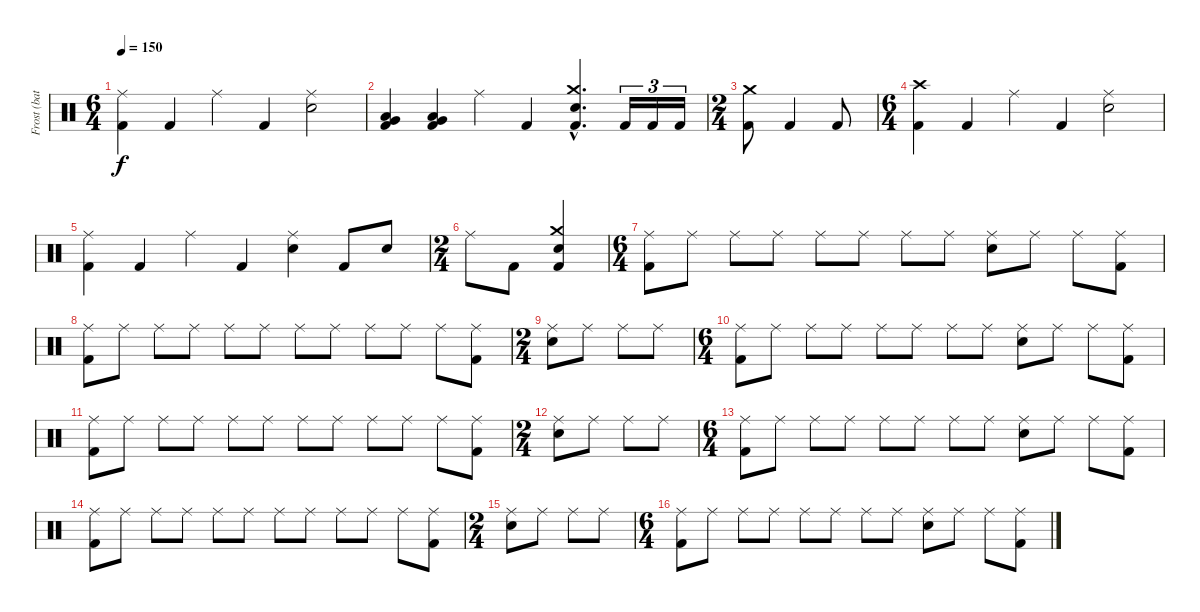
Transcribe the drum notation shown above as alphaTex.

\track ("Frost (battery)" "Frost (bat") {instrument percussion}
\staff {score}
\articulation defaults
\ts (6 4)
\tempo 150
\clef neutral
\ks c
("Ride (middle)" "Kick (hit) 2").4{dy f} "Kick (hit) 2".4 "Ride (middle)".4 "Kick (hit) 2".4 ("Ride (middle)" "Snare (hit) 2").2 |
("Very Low Tom (hit)" "Low Floor Tom (hit)" "Kick (hit) 2").4 ("Very Low Tom (hit)" "Low Floor Tom (hit)" "Kick (hit) 2").4 "Ride (middle)".4 "Kick (hit) 2".4 ("Crash medium (hit)"{hac} "Electric Snare (hit)"{hac} "Kick (hit) 2"{hac}).4{d} "Kick (hit) 2".16{tu (3 2)} "Kick (hit) 2".16{tu (3 2)} "Kick (hit) 2".16{tu (3 2)} |
\ts (2 4)
("Crash medium (hit)" "Kick (hit) 2").8 "Kick (hit) 2".4 "Kick (hit) 2".8 |
\ts (6 4)
("Crash high (hit)" "Kick (hit) 2").4 "Kick (hit) 2".4 "Ride (middle)".4 "Kick (hit) 2".4 ("Ride (middle)" "Snare (hit) 2").2 |
("Ride (middle)" "Kick (hit) 2").4 "Kick (hit) 2".4 "Ride (middle)".4 "Kick (hit) 2".4 ("Ride (middle)" "Snare (hit) 2").4 "Kick (hit) 2".8 "Electric Snare (hit)".8 |
\ts (2 4)
"Ride (middle)".8 "Kick (hit) 2".8 ("Crash medium (hit)" "Electric Snare (hit)" "Kick (hit) 2").4 |
\ts (6 4)
("Ride (middle)" "Kick (hit) 2").8 "Ride (middle)".8 "Ride (middle)".8 "Ride (middle)".8 "Ride (middle)".8 "Ride (middle)".8 "Ride (middle)".8{volume 11} "Ride (middle)".8 ("Ride (middle)" "Electric Snare (hit)").8 "Ride (middle)".8 "Ride (middle)".8 ("Ride (middle)" "Kick (hit) 2").8 |
("Ride (middle)" "Kick (hit) 2").8{volume 10} "Ride (middle)".8 "Ride (middle)".8 "Ride (middle)".8 "Ride (middle)".8 "Ride (middle)".8 "Ride (middle)".8{volume 9} "Ride (middle)".8 "Ride (middle)".8 "Ride (middle)".8 "Ride (middle)".8 ("Ride (middle)" "Kick (hit) 2").8 |
\ts (2 4)
("Ride (middle)" "Electric Snare (hit)").8{volume 8} "Ride (middle)".8 "Ride (middle)".8 "Ride (middle)".8 |
\ts (6 4)
("Ride (middle)" "Kick (hit) 2").8{volume 7} "Ride (middle)".8 "Ride (middle)".8 "Ride (middle)".8 "Ride (middle)".8 "Ride (middle)".8 "Ride (middle)".8{volume 7} "Ride (middle)".8 ("Ride (middle)" "Electric Snare (hit)").8 "Ride (middle)".8 "Ride (middle)".8 ("Ride (middle)" "Kick (hit) 2").8 |
("Ride (middle)" "Kick (hit) 2").8{volume 6} "Ride (middle)".8 "Ride (middle)".8 "Ride (middle)".8 "Ride (middle)".8 "Ride (middle)".8 "Ride (middle)".8{volume 5} "Ride (middle)".8 "Ride (middle)".8 "Ride (middle)".8 "Ride (middle)".8 ("Ride (middle)" "Kick (hit) 2").8 |
\ts (2 4)
("Ride (middle)" "Electric Snare (hit)").8{volume 4} "Ride (middle)".8 "Ride (middle)".8 "Ride (middle)".8 |
\ts (6 4)
("Ride (middle)" "Kick (hit) 2").8{volume 3} "Ride (middle)".8 "Ride (middle)".8 "Ride (middle)".8 "Ride (middle)".8 "Ride (middle)".8 "Ride (middle)".8{volume 2} "Ride (middle)".8 ("Ride (middle)" "Electric Snare (hit)").8 "Ride (middle)".8 "Ride (middle)".8 ("Ride (middle)" "Kick (hit) 2").8 |
("Ride (middle)" "Kick (hit) 2").8{volume 1} "Ride (middle)".8 "Ride (middle)".8 "Ride (middle)".8 "Ride (middle)".8 "Ride (middle)".8 "Ride (middle)".8{volume 0} "Ride (middle)".8 "Ride (middle)".8 "Ride (middle)".8 "Ride (middle)".8 ("Ride (middle)" "Kick (hit) 2").8 |
\ts (2 4)
("Ride (middle)" "Electric Snare (hit)").8 "Ride (middle)".8 "Ride (middle)".8 "Ride (middle)".8 |
\ts (6 4)
("Ride (middle)" "Kick (hit) 2").8 "Ride (middle)".8 "Ride (middle)".8 "Ride (middle)".8 "Ride (middle)".8 "Ride (middle)".8 "Ride (middle)".8 "Ride (middle)".8 ("Ride (middle)" "Electric Snare (hit)").8 "Ride (middle)".8 "Ride (middle)".8 ("Ride (middle)" "Kick (hit) 2").8
